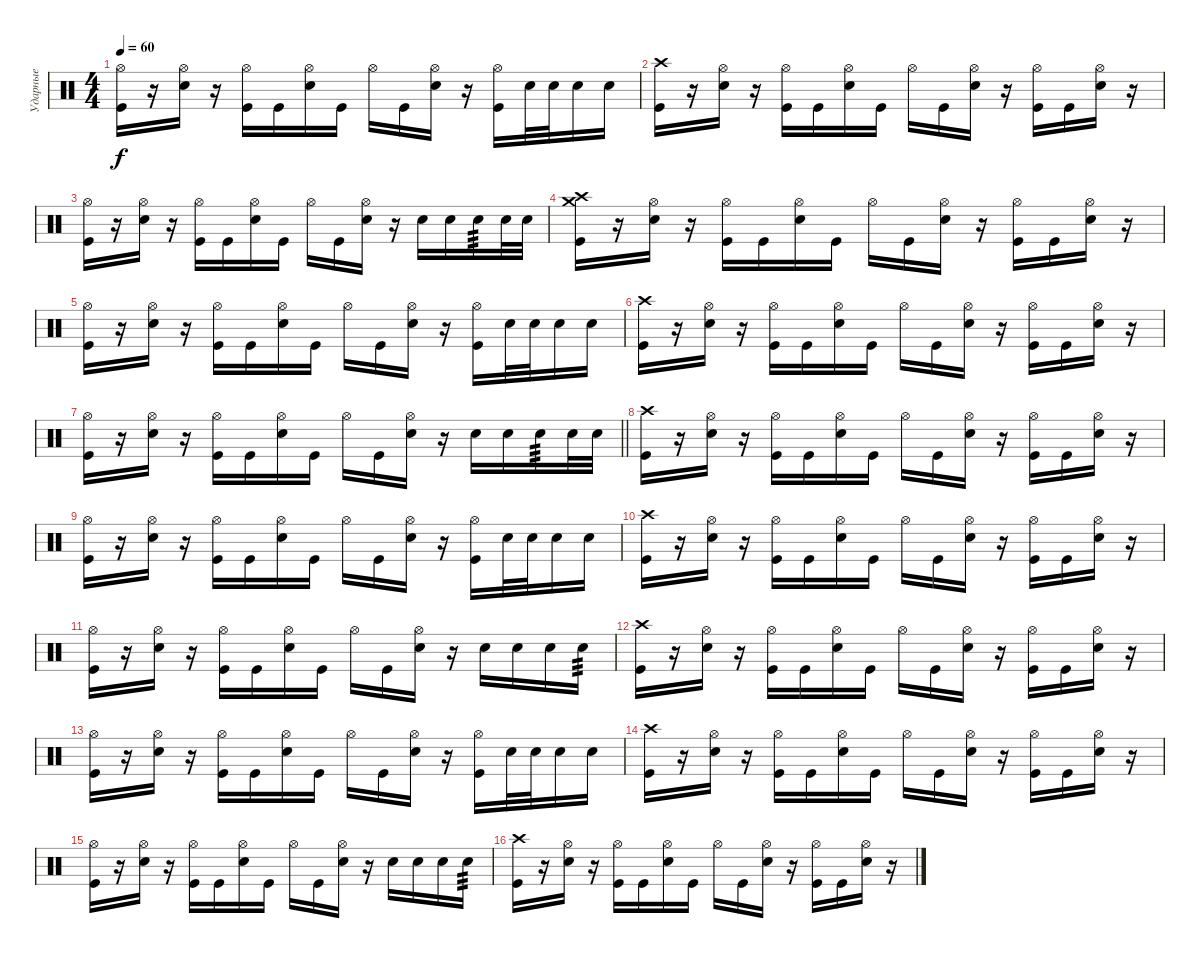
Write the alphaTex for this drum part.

\track ("Ударные" "Ударные") {instrument percussion}
\staff {score}
\articulation defaults
\ts (4 4)
\tempo 60
\clef neutral
\ks c
("Hi-Hat (open)" "Kick (hit)").16{dy f} r.16 ("Hi-Hat (open)" "Electric Snare (hit)").16 r.16 ("Hi-Hat (open)" "Kick (hit)").16 "Kick (hit)".16 ("Hi-Hat (open)" "Electric Snare (hit)").16 "Kick (hit)".16 "Hi-Hat (open)".16 "Kick (hit)".16 ("Hi-Hat (open)" "Electric Snare (hit)").16 r.16 ("Hi-Hat (open)" "Kick (hit)").16 "Electric Snare (hit)".32 "Electric Snare (hit)".32 "Electric Snare (hit)".16 "Electric Snare (hit)".16 |
("Crash high (hit)" "Kick (hit)").16 r.16 ("Hi-Hat (open)" "Electric Snare (hit)").16 r.16 ("Hi-Hat (open)" "Kick (hit)").16 "Kick (hit)".16 ("Hi-Hat (open)" "Electric Snare (hit)").16 "Kick (hit)".16 "Hi-Hat (open)".16 "Kick (hit)".16 ("Hi-Hat (open)" "Electric Snare (hit)").16 r.16 ("Hi-Hat (open)" "Kick (hit)").16 "Kick (hit)".16 ("Hi-Hat (open)" "Electric Snare (hit)").16 r.16 |
("Hi-Hat (open)" "Kick (hit)").16 r.16 ("Hi-Hat (open)" "Electric Snare (hit)").16 r.16 ("Hi-Hat (open)" "Kick (hit)").16 "Kick (hit)".16 ("Hi-Hat (open)" "Electric Snare (hit)").16 "Kick (hit)".16 "Hi-Hat (open)".16 "Kick (hit)".16 ("Hi-Hat (open)" "Electric Snare (hit)").16 r.16 "Electric Snare (hit)".16 "Electric Snare (hit)".16 "Electric Snare (hit)".16{tp 3} "Electric Snare (hit)".32 "Electric Snare (hit)".32 |
("Crash high (hit)" "Crash medium (hit)" "Kick (hit)").16 r.16 ("Hi-Hat (open)" "Electric Snare (hit)").16 r.16 ("Hi-Hat (open)" "Kick (hit)").16 "Kick (hit)".16 ("Hi-Hat (open)" "Electric Snare (hit)").16 "Kick (hit)".16 "Hi-Hat (open)".16 "Kick (hit)".16 ("Hi-Hat (open)" "Electric Snare (hit)").16 r.16 ("Hi-Hat (open)" "Kick (hit)").16 "Kick (hit)".16 ("Hi-Hat (open)" "Electric Snare (hit)").16 r.16 |
("Hi-Hat (open)" "Kick (hit)").16 r.16 ("Hi-Hat (open)" "Electric Snare (hit)").16 r.16 ("Hi-Hat (open)" "Kick (hit)").16 "Kick (hit)".16 ("Hi-Hat (open)" "Electric Snare (hit)").16 "Kick (hit)".16 "Hi-Hat (open)".16 "Kick (hit)".16 ("Hi-Hat (open)" "Electric Snare (hit)").16 r.16 ("Hi-Hat (open)" "Kick (hit)").16 "Electric Snare (hit)".32 "Electric Snare (hit)".32 "Electric Snare (hit)".16 "Electric Snare (hit)".16 |
("Crash high (hit)" "Kick (hit)").16 r.16 ("Hi-Hat (open)" "Electric Snare (hit)").16 r.16 ("Hi-Hat (open)" "Kick (hit)").16 "Kick (hit)".16 ("Hi-Hat (open)" "Electric Snare (hit)").16 "Kick (hit)".16 "Hi-Hat (open)".16 "Kick (hit)".16 ("Hi-Hat (open)" "Electric Snare (hit)").16 r.16 ("Hi-Hat (open)" "Kick (hit)").16 "Kick (hit)".16 ("Hi-Hat (open)" "Electric Snare (hit)").16 r.16 |
\barLineRight lightlight
("Hi-Hat (open)" "Kick (hit)").16 r.16 ("Hi-Hat (open)" "Electric Snare (hit)").16 r.16 ("Hi-Hat (open)" "Kick (hit)").16 "Kick (hit)".16 ("Hi-Hat (open)" "Electric Snare (hit)").16 "Kick (hit)".16 "Hi-Hat (open)".16 "Kick (hit)".16 ("Hi-Hat (open)" "Electric Snare (hit)").16 r.16 "Electric Snare (hit)".16 "Electric Snare (hit)".16 "Electric Snare (hit)".16{tp 3} "Electric Snare (hit)".32 "Electric Snare (hit)".32 |
("Crash high (hit)" "Kick (hit)").16 r.16 ("Hi-Hat (open)" "Electric Snare (hit)").16 r.16 ("Hi-Hat (open)" "Kick (hit)").16 "Kick (hit)".16 ("Hi-Hat (open)" "Electric Snare (hit)").16 "Kick (hit)".16 "Hi-Hat (open)".16 "Kick (hit)".16 ("Hi-Hat (open)" "Electric Snare (hit)").16 r.16 ("Hi-Hat (open)" "Kick (hit)").16 "Kick (hit)".16 ("Hi-Hat (open)" "Electric Snare (hit)").16 r.16 |
("Hi-Hat (open)" "Kick (hit)").16 r.16 ("Hi-Hat (open)" "Electric Snare (hit)").16 r.16 ("Hi-Hat (open)" "Kick (hit)").16 "Kick (hit)".16 ("Hi-Hat (open)" "Electric Snare (hit)").16 "Kick (hit)".16 "Hi-Hat (open)".16 "Kick (hit)".16 ("Hi-Hat (open)" "Electric Snare (hit)").16 r.16 ("Hi-Hat (open)" "Kick (hit)").16 "Electric Snare (hit)".32 "Electric Snare (hit)".32 "Electric Snare (hit)".16 "Electric Snare (hit)".16 |
("Crash high (hit)" "Kick (hit)").16 r.16 ("Hi-Hat (open)" "Electric Snare (hit)").16 r.16 ("Hi-Hat (open)" "Kick (hit)").16 "Kick (hit)".16 ("Hi-Hat (open)" "Electric Snare (hit)").16 "Kick (hit)".16 "Hi-Hat (open)".16 "Kick (hit)".16 ("Hi-Hat (open)" "Electric Snare (hit)").16 r.16 ("Hi-Hat (open)" "Kick (hit)").16 "Kick (hit)".16 ("Hi-Hat (open)" "Electric Snare (hit)").16 r.16 |
("Hi-Hat (open)" "Kick (hit)").16 r.16 ("Hi-Hat (open)" "Electric Snare (hit)").16 r.16 ("Hi-Hat (open)" "Kick (hit)").16 "Kick (hit)".16 ("Hi-Hat (open)" "Electric Snare (hit)").16 "Kick (hit)".16 "Hi-Hat (open)".16 "Kick (hit)".16 ("Hi-Hat (open)" "Electric Snare (hit)").16 r.16 "Electric Snare (hit)".16 "Electric Snare (hit)".16 "Electric Snare (hit)".16 "Electric Snare (hit)".16{tp 3} |
("Crash high (hit)" "Kick (hit)").16 r.16 ("Hi-Hat (open)" "Electric Snare (hit)").16 r.16 ("Hi-Hat (open)" "Kick (hit)").16 "Kick (hit)".16 ("Hi-Hat (open)" "Electric Snare (hit)").16 "Kick (hit)".16 "Hi-Hat (open)".16 "Kick (hit)".16 ("Hi-Hat (open)" "Electric Snare (hit)").16 r.16 ("Hi-Hat (open)" "Kick (hit)").16 "Kick (hit)".16 ("Hi-Hat (open)" "Electric Snare (hit)").16 r.16 |
("Hi-Hat (open)" "Kick (hit)").16 r.16 ("Hi-Hat (open)" "Electric Snare (hit)").16 r.16 ("Hi-Hat (open)" "Kick (hit)").16 "Kick (hit)".16 ("Hi-Hat (open)" "Electric Snare (hit)").16 "Kick (hit)".16 "Hi-Hat (open)".16 "Kick (hit)".16 ("Hi-Hat (open)" "Electric Snare (hit)").16 r.16 ("Hi-Hat (open)" "Kick (hit)").16 "Electric Snare (hit)".32 "Electric Snare (hit)".32 "Electric Snare (hit)".16 "Electric Snare (hit)".16 |
("Crash high (hit)" "Kick (hit)").16 r.16 ("Hi-Hat (open)" "Electric Snare (hit)").16 r.16 ("Hi-Hat (open)" "Kick (hit)").16 "Kick (hit)".16 ("Hi-Hat (open)" "Electric Snare (hit)").16 "Kick (hit)".16 "Hi-Hat (open)".16 "Kick (hit)".16 ("Hi-Hat (open)" "Electric Snare (hit)").16 r.16 ("Hi-Hat (open)" "Kick (hit)").16 "Kick (hit)".16 ("Hi-Hat (open)" "Electric Snare (hit)").16 r.16 |
("Hi-Hat (open)" "Kick (hit)").16 r.16 ("Hi-Hat (open)" "Electric Snare (hit)").16 r.16 ("Hi-Hat (open)" "Kick (hit)").16 "Kick (hit)".16 ("Hi-Hat (open)" "Electric Snare (hit)").16 "Kick (hit)".16 "Hi-Hat (open)".16 "Kick (hit)".16 ("Hi-Hat (open)" "Electric Snare (hit)").16 r.16 "Electric Snare (hit)".16 "Electric Snare (hit)".16 "Electric Snare (hit)".16 "Electric Snare (hit)".16{tp 3} |
("Crash high (hit)" "Kick (hit)").16 r.16 ("Hi-Hat (open)" "Electric Snare (hit)").16 r.16 ("Hi-Hat (open)" "Kick (hit)").16 "Kick (hit)".16 ("Hi-Hat (open)" "Electric Snare (hit)").16 "Kick (hit)".16 "Hi-Hat (open)".16 "Kick (hit)".16 ("Hi-Hat (open)" "Electric Snare (hit)").16 r.16 ("Hi-Hat (open)" "Kick (hit)").16 "Kick (hit)".16 ("Hi-Hat (open)" "Electric Snare (hit)").16 r.16
